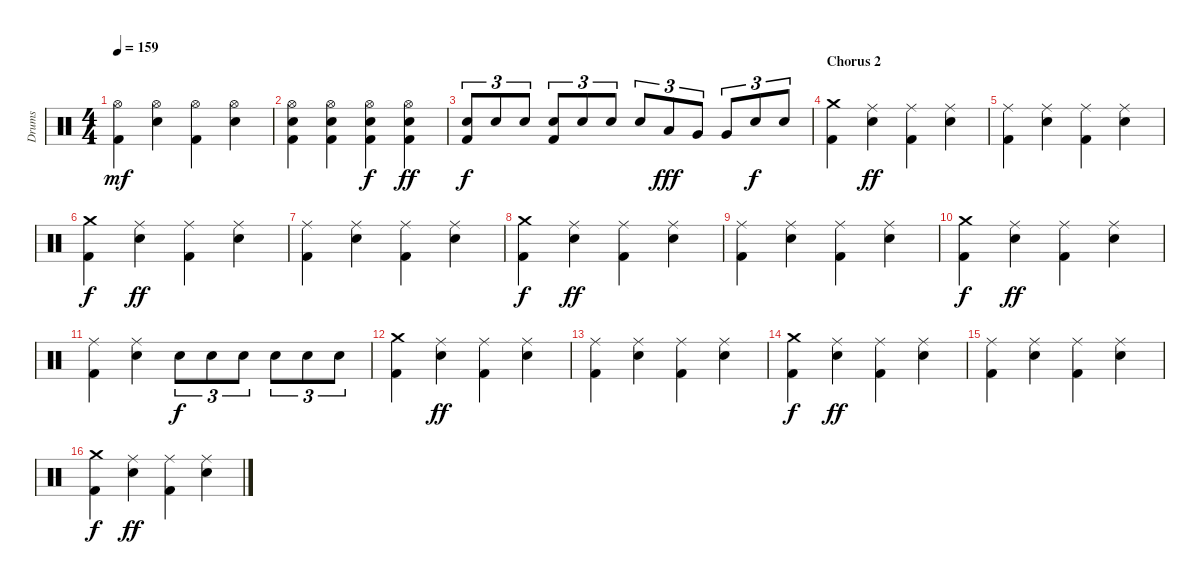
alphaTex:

\track ("Drums" "Drums") {instrument percussion}
\staff {score}
\articulation defaults
\ts (4 4)
\tempo 159
\clef neutral
\ks c
("Hi-Hat (open)" "Kick (hit) 2").4{dy mf} ("Hi-Hat (open)" "Snare (hit) 2").4 ("Hi-Hat (open)" "Kick (hit) 2").4 ("Hi-Hat (open)" "Snare (hit) 2").4 |
("Hi-Hat (open)" "Snare (hit) 2" "Kick (hit) 2").4 ("Hi-Hat (open)" "Snare (hit) 2" "Kick (hit) 2").4 ("Hi-Hat (open)" "Snare (hit) 2" "Kick (hit) 2").4{dy f} ("Hi-Hat (open)" "Snare (hit) 2" "Kick (hit) 2").4{dy ff} |
("Snare (hit) 2" "Kick (hit) 2").8{tu (3 2) dy f} "Snare (hit) 2".8{tu (3 2)} "Snare (hit) 2".8{tu (3 2)} ("Snare (hit) 2" "Kick (hit) 2").8{tu (3 2)} "Snare (hit) 2".8{tu (3 2)} "Snare (hit) 2".8{tu (3 2)} "Snare (hit) 2".8{tu (3 2)} "Low Tom (hit)".8{tu (3 2) dy fff} "Very Low Tom (hit)".8{tu (3 2)} "Very Low Tom (hit)".8{tu (3 2)} "Snare (hit) 2".8{tu (3 2) dy f} "Snare (hit) 2".8{tu (3 2)} |
\section ("" "Chorus 2")
("Crash medium (hit)" "Kick (hit) 2").4 ("Ride (middle)" "Snare (hit) 2").4{dy ff} ("Ride (middle)" "Kick (hit) 2").4 ("Ride (middle)" "Snare (hit) 2").4 |
("Ride (middle)" "Kick (hit) 2").4 ("Ride (middle)" "Snare (hit) 2").4 ("Ride (middle)" "Kick (hit) 2").4 ("Ride (middle)" "Snare (hit) 2").4 |
("Crash medium (hit)" "Kick (hit) 2").4{dy f} ("Ride (middle)" "Snare (hit) 2").4{dy ff} ("Ride (middle)" "Kick (hit) 2").4 ("Ride (middle)" "Snare (hit) 2").4 |
("Ride (middle)" "Kick (hit) 2").4 ("Ride (middle)" "Snare (hit) 2").4 ("Ride (middle)" "Kick (hit) 2").4 ("Ride (middle)" "Snare (hit) 2").4 |
("Crash medium (hit)" "Kick (hit) 2").4{dy f} ("Ride (middle)" "Snare (hit) 2").4{dy ff} ("Ride (middle)" "Kick (hit) 2").4 ("Ride (middle)" "Snare (hit) 2").4 |
("Ride (middle)" "Kick (hit) 2").4 ("Ride (middle)" "Snare (hit) 2").4 ("Ride (middle)" "Kick (hit) 2").4 ("Ride (middle)" "Snare (hit) 2").4 |
("Crash medium (hit)" "Kick (hit) 2").4{dy f} ("Ride (middle)" "Snare (hit) 2").4{dy ff} ("Ride (middle)" "Kick (hit) 2").4 ("Ride (middle)" "Snare (hit) 2").4 |
("Ride (middle)" "Kick (hit) 2").4 ("Ride (middle)" "Snare (hit) 2").4 "Snare (hit) 2".8{tu (3 2) dy f} "Snare (hit) 2".8{tu (3 2)} "Snare (hit) 2".8{tu (3 2)} "Snare (hit) 2".8{tu (3 2)} "Snare (hit) 2".8{tu (3 2)} "Snare (hit) 2".8{tu (3 2)} |
("Crash medium (hit)" "Kick (hit) 2").4 ("Ride (middle)" "Snare (hit) 2").4{dy ff} ("Ride (middle)" "Kick (hit) 2").4 ("Ride (middle)" "Snare (hit) 2").4 |
("Ride (middle)" "Kick (hit) 2").4 ("Ride (middle)" "Snare (hit) 2").4 ("Ride (middle)" "Kick (hit) 2").4 ("Ride (middle)" "Snare (hit) 2").4 |
("Crash medium (hit)" "Kick (hit) 2").4{dy f} ("Ride (middle)" "Snare (hit) 2").4{dy ff} ("Ride (middle)" "Kick (hit) 2").4 ("Ride (middle)" "Snare (hit) 2").4 |
("Ride (middle)" "Kick (hit) 2").4 ("Ride (middle)" "Snare (hit) 2").4 ("Ride (middle)" "Kick (hit) 2").4 ("Ride (middle)" "Snare (hit) 2").4 |
("Crash medium (hit)" "Kick (hit) 2").4{dy f} ("Ride (middle)" "Snare (hit) 2").4{dy ff} ("Ride (middle)" "Kick (hit) 2").4 ("Ride (middle)" "Snare (hit) 2").4
